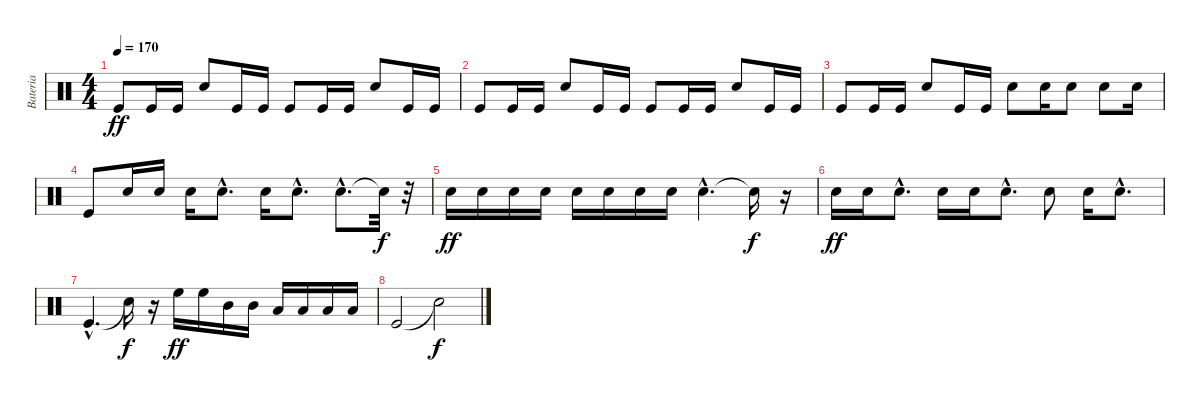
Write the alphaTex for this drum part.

\track ("Bateria" "Bateria") {instrument percussion}
\staff {score}
\articulation defaults
\ts (4 4)
\tempo 170
\clef neutral
\ks c "Kick (hit)".8{dy ff} "Kick (hit)".16 "Kick (hit)".16 "Electric Snare (hit)".8 "Kick (hit)".16 "Kick (hit)".16 "Kick (hit)".8 "Kick (hit)".16 "Kick (hit)".16 "Electric Snare (hit)".8 "Kick (hit)".16 "Kick (hit)".16
|
"Kick (hit)".8 "Kick (hit)".16 "Kick (hit)".16 "Electric Snare (hit)".8 "Kick (hit)".16 "Kick (hit)".16 "Kick (hit)".8 "Kick (hit)".16 "Kick (hit)".16 "Electric Snare (hit)".8 "Kick (hit)".16 "Kick (hit)".16 |
"Kick (hit)".8 "Kick (hit)".16 "Kick (hit)".16 "Electric Snare (hit)".8 "Kick (hit)".16 "Kick (hit)".16 "Electric Snare (hit)".8 "Electric Snare (hit)".16 "Electric Snare (hit)".8 "Electric Snare (hit)".8 "Electric Snare (hit)".16 |
"Kick (hit)".8 "Electric Snare (hit)".16 "Electric Snare (hit)".16 "Electric Snare (hit)".16 "Electric Snare (hit)"{hac}.8{d} "Electric Snare (hit)".16 "Electric Snare (hit)"{hac}.8{d} "Electric Snare (hit)"{hac}.8{d} "Snare (hit)"{t}.32{dy f} r.32 |
"Electric Snare (hit)".16{dy ff} "Electric Snare (hit)".16 "Electric Snare (hit)".16 "Electric Snare (hit)".16 "Electric Snare (hit)".16 "Electric Snare (hit)".16 "Electric Snare (hit)".16 "Electric Snare (hit)".16 "Electric Snare (hit)"{hac}.4{d} "Snare (hit)"{t}.16{dy f} r.16 |
"Electric Snare (hit)".16{dy ff} "Electric Snare (hit)".16 "Electric Snare (hit)"{hac}.8{d} "Electric Snare (hit)".16 "Electric Snare (hit)".16 "Electric Snare (hit)"{hac}.8{d} "Electric Snare (hit)".8 "Electric Snare (hit)".16 "Electric Snare (hit)"{hac}.8{d} |
"Kick (hit)"{hac}.4{d} "Snare (hit)"{t}.16{dy f} r.16 "High Floor Tom (hit)".16{dy ff} "High Floor Tom (hit)".16 "Mid Tom (hit)".16 "Mid Tom (hit)".16 "Low Tom (hit)".16 "Low Tom (hit)".16 "Low Floor Tom (hit)".16 "Low Floor Tom (hit)".16 |
"Kick (hit)".2 "Snare (hit)"{t}.2{dy f}
